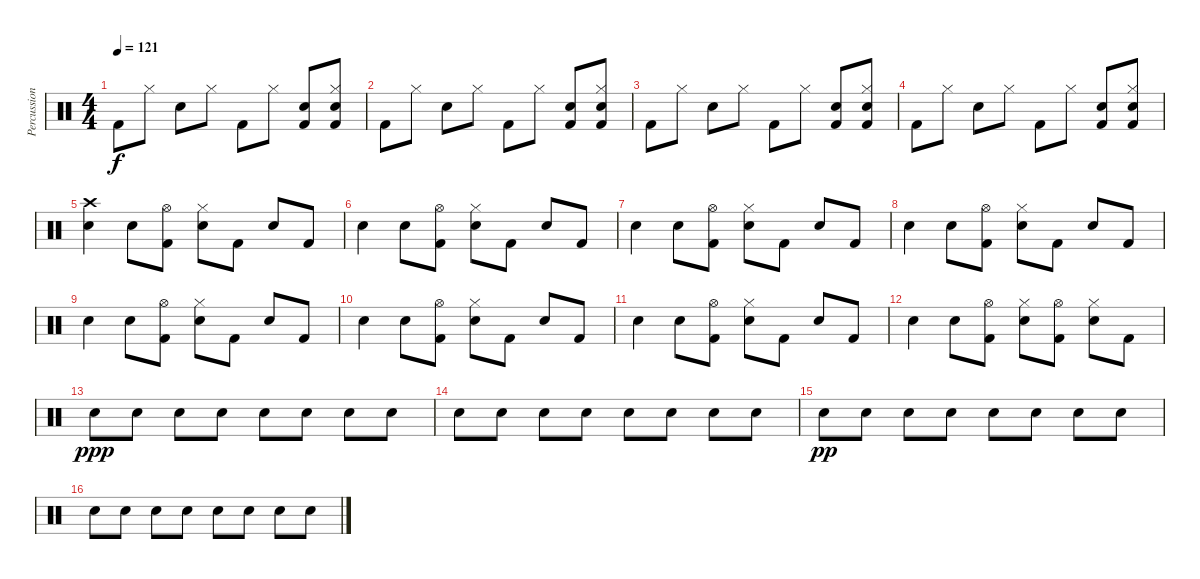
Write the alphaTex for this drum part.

\track ("Percussion" "Percussion") {instrument percussion}
\staff {score}
\articulation defaults
\ts (4 4)
\tempo 121
\clef neutral
\ks c "Kick (hit) 2".8{dy f} "Hi-Hat (closed)".8 "Snare (hit) 2".8 "Hi-Hat (closed)".8 "Kick (hit) 2".8 "Hi-Hat (closed)".8
("Kick (hit) 2" "Snare (hit) 2").8 ("Hi-Hat (closed)" "Kick (hit) 2" "Snare (hit) 2").8 |
"Kick (hit) 2".8 "Hi-Hat (closed)".8 "Snare (hit) 2".8 "Hi-Hat (closed)".8 "Kick (hit) 2".8 "Hi-Hat (closed)".8 ("Kick (hit) 2" "Snare (hit) 2").8 ("Hi-Hat (closed)" "Kick (hit) 2" "Snare (hit) 2").8 |
"Kick (hit) 2".8 "Hi-Hat (closed)".8 "Snare (hit) 2".8 "Hi-Hat (closed)".8 "Kick (hit) 2".8 "Hi-Hat (closed)".8 ("Kick (hit) 2" "Snare (hit) 2").8 ("Hi-Hat (closed)" "Kick (hit) 2" "Snare (hit) 2").8 |
"Kick (hit) 2".8 "Hi-Hat (closed)".8 "Snare (hit) 2".8 "Hi-Hat (closed)".8 "Kick (hit) 2".8 "Hi-Hat (closed)".8 ("Kick (hit) 2" "Snare (hit) 2").8 ("Hi-Hat (closed)" "Kick (hit) 2" "Snare (hit) 2").8 |
("Crash high (hit)" "Snare (hit) 2").4 "Snare (hit) 2".8 ("Hi-Hat (open)" "Kick (hit) 2").8 ("Hi-Hat (closed)" "Snare (hit) 2").8 "Kick (hit) 2".8 "Snare (hit) 2".8 "Kick (hit) 2".8 |
"Snare (hit) 2".4 "Snare (hit) 2".8 ("Hi-Hat (open)" "Kick (hit) 2").8 ("Hi-Hat (closed)" "Snare (hit) 2").8 "Kick (hit) 2".8 "Snare (hit) 2".8 "Kick (hit) 2".8 |
"Snare (hit) 2".4 "Snare (hit) 2".8 ("Hi-Hat (open)" "Kick (hit) 2").8 ("Hi-Hat (closed)" "Snare (hit) 2").8 "Kick (hit) 2".8 "Snare (hit) 2".8 "Kick (hit) 2".8 |
"Snare (hit) 2".4 "Snare (hit) 2".8 ("Hi-Hat (open)" "Kick (hit) 2").8 ("Hi-Hat (closed)" "Snare (hit) 2").8 "Kick (hit) 2".8 "Snare (hit) 2".8 "Kick (hit) 2".8 |
"Snare (hit) 2".4 "Snare (hit) 2".8 ("Hi-Hat (open)" "Kick (hit) 2").8 ("Hi-Hat (closed)" "Snare (hit) 2").8 "Kick (hit) 2".8 "Snare (hit) 2".8 "Kick (hit) 2".8 |
"Snare (hit) 2".4 "Snare (hit) 2".8 ("Hi-Hat (open)" "Kick (hit) 2").8 ("Hi-Hat (closed)" "Snare (hit) 2").8 "Kick (hit) 2".8 "Snare (hit) 2".8 "Kick (hit) 2".8 |
"Snare (hit) 2".4 "Snare (hit) 2".8 ("Hi-Hat (open)" "Kick (hit) 2").8 ("Hi-Hat (closed)" "Snare (hit) 2").8 "Kick (hit) 2".8 "Snare (hit) 2".8 "Kick (hit) 2".8 |
"Snare (hit) 2".4 "Snare (hit) 2".8 ("Hi-Hat (open)" "Kick (hit) 2").8 ("Hi-Hat (closed)" "Snare (hit) 2").8 ("Hi-Hat (open)" "Kick (hit) 2").8 ("Hi-Hat (closed)" "Snare (hit) 2").8 "Kick (hit) 2".8 |
"Snare (hit) 2".8{dy ppp} "Snare (hit) 2".8 "Snare (hit) 2".8 "Snare (hit) 2".8 "Snare (hit) 2".8 "Snare (hit) 2".8 "Snare (hit) 2".8 "Snare (hit) 2".8 |
"Snare (hit) 2".8 "Snare (hit) 2".8 "Snare (hit) 2".8 "Snare (hit) 2".8 "Snare (hit) 2".8 "Snare (hit) 2".8 "Snare (hit) 2".8 "Snare (hit) 2".8 |
"Snare (hit) 2".8{dy pp} "Snare (hit) 2".8 "Snare (hit) 2".8 "Snare (hit) 2".8 "Snare (hit) 2".8 "Snare (hit) 2".8 "Snare (hit) 2".8 "Snare (hit) 2".8 |
"Snare (hit) 2".8 "Snare (hit) 2".8 "Snare (hit) 2".8 "Snare (hit) 2".8 "Snare (hit) 2".8 "Snare (hit) 2".8 "Snare (hit) 2".8 "Snare (hit) 2".8
